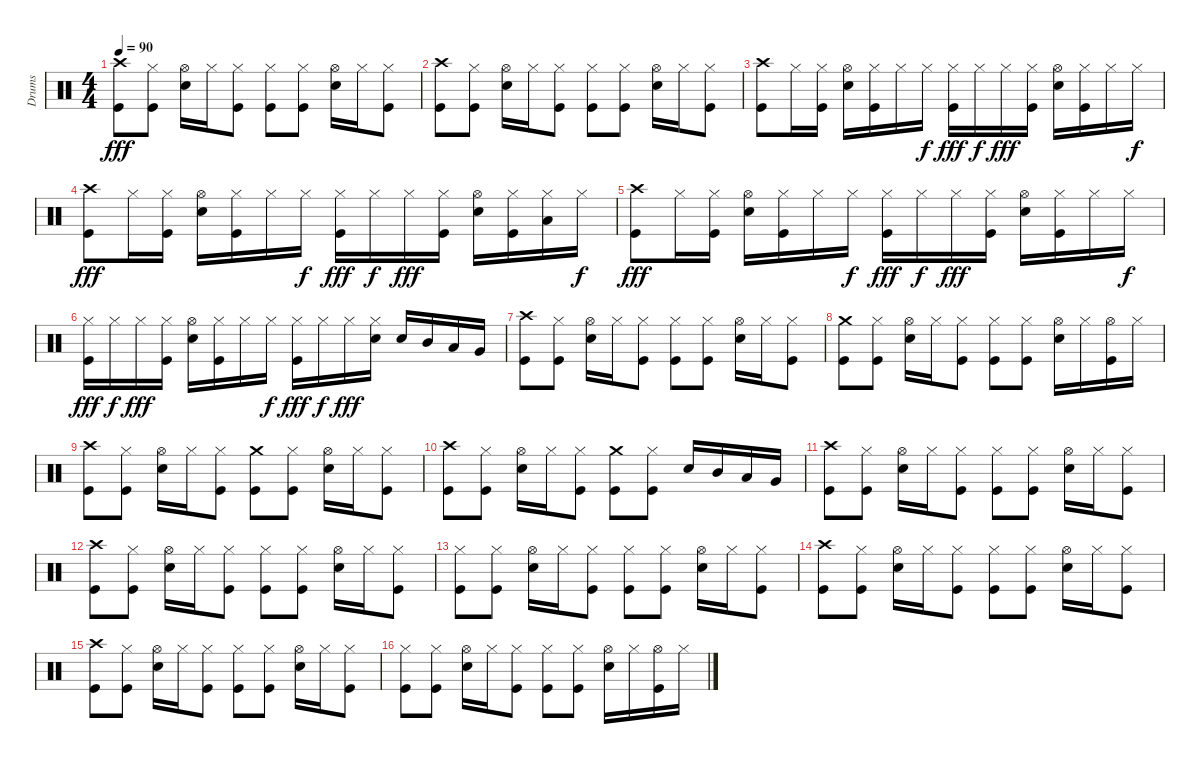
\track ("Drums" "Drums") {instrument percussion}
\staff {score}
\articulation defaults
\ts (4 4)
\tempo 90
\clef neutral
\ks c
("Crash high (hit)" "Kick (hit)").8{dy fff} ("Hi-Hat (closed)" "Kick (hit)").8 ("Hi-Hat (open)" "Snare (hit) 2").16 "Hi-Hat (closed)".16 ("Hi-Hat (closed)" "Kick (hit)").8 ("Hi-Hat (closed)" "Kick (hit)").8 ("Hi-Hat (closed)" "Kick (hit)").8 ("Hi-Hat (open)" "Snare (hit) 2").16 "Hi-Hat (closed)".16 ("Hi-Hat (closed)" "Kick (hit)").8 |
("Crash high (hit)" "Kick (hit)").8 ("Hi-Hat (closed)" "Kick (hit)").8 ("Hi-Hat (open)" "Snare (hit) 2").16 "Hi-Hat (closed)".16 ("Hi-Hat (closed)" "Kick (hit)").8 ("Hi-Hat (closed)" "Kick (hit)").8 ("Hi-Hat (closed)" "Kick (hit)").8 ("Hi-Hat (open)" "Snare (hit) 2").16 "Hi-Hat (closed)".16 ("Hi-Hat (closed)" "Kick (hit)").8 |
("Crash high (hit)" "Kick (hit)").8 "Hi-Hat (closed)".16 ("Hi-Hat (closed)" "Kick (hit)").16 ("Hi-Hat (open)" "Snare (hit) 2").16 ("Hi-Hat (closed)" "Kick (hit)").16 "Hi-Hat (closed)".16 "Hi-Hat (closed)".16{dy f} ("Hi-Hat (closed)" "Kick (hit)").16{dy fff} "Hi-Hat (closed)".16{dy f} "Hi-Hat (closed)".16{dy fff} ("Hi-Hat (closed)" "Kick (hit)").16 ("Hi-Hat (open)" "Snare (hit) 2").16 ("Hi-Hat (closed)" "Kick (hit)").16 "Hi-Hat (closed)".16 "Hi-Hat (closed)".16{dy f} |
("Crash high (hit)" "Kick (hit)").8{dy fff} "Hi-Hat (closed)".16 ("Hi-Hat (closed)" "Kick (hit)").16 ("Hi-Hat (open)" "Snare (hit) 2").16 ("Hi-Hat (closed)" "Kick (hit)").16 "Hi-Hat (closed)".16 "Hi-Hat (closed)".16{dy f} ("Hi-Hat (closed)" "Kick (hit)").16{dy fff} "Hi-Hat (closed)".16{dy f} "Hi-Hat (closed)".16{dy fff} ("Hi-Hat (closed)" "Kick (hit)").16 ("Hi-Hat (open)" "Snare (hit) 2").16 ("Hi-Hat (closed)" "Kick (hit)").16 ("Hi-Hat (closed)" "Low Tom (hit)").16 "Hi-Hat (closed)".16{dy f} |
("Crash high (hit)" "Kick (hit)").8{dy fff} "Hi-Hat (closed)".16 ("Hi-Hat (closed)" "Kick (hit)").16 ("Hi-Hat (open)" "Snare (hit) 2").16 ("Hi-Hat (closed)" "Kick (hit)").16 "Hi-Hat (closed)".16 "Hi-Hat (closed)".16{dy f} ("Hi-Hat (closed)" "Kick (hit)").16{dy fff} "Hi-Hat (closed)".16{dy f} "Hi-Hat (closed)".16{dy fff} ("Hi-Hat (closed)" "Kick (hit)").16 ("Hi-Hat (open)" "Snare (hit) 2").16 ("Hi-Hat (closed)" "Kick (hit)").16 "Hi-Hat (closed)".16 "Hi-Hat (closed)".16{dy f} |
("Hi-Hat (closed)" "Kick (hit)").16{dy fff} "Hi-Hat (closed)".16{dy f} "Hi-Hat (closed)".16{dy fff} ("Hi-Hat (closed)" "Kick (hit)").16 ("Hi-Hat (open)" "Snare (hit) 2").16 ("Hi-Hat (closed)" "Kick (hit)").16 "Hi-Hat (closed)".16 "Hi-Hat (closed)".16{dy f} ("Hi-Hat (closed)" "Kick (hit)").16{dy fff} "Hi-Hat (closed)".16{dy f} "Hi-Hat (closed)".16{dy fff} ("Hi-Hat (closed)" "Snare (hit) 2").16 "Snare (hit) 2".16 "Mid Tom (hit)".16 "Low Tom (hit)".16 "Very Low Tom (hit)".16 |
("Crash high (hit)" "Kick (hit)").8 ("Hi-Hat (closed)" "Kick (hit)").8 ("Hi-Hat (open)" "Snare (hit) 2").16 "Hi-Hat (closed)".16 ("Hi-Hat (closed)" "Kick (hit)").8 ("Hi-Hat (closed)" "Kick (hit)").8 ("Hi-Hat (closed)" "Kick (hit)").8 ("Hi-Hat (open)" "Snare (hit) 2").16 "Hi-Hat (closed)".16 ("Hi-Hat (closed)" "Kick (hit)").8 |
("Crash medium (hit)" "Kick (hit)").8 ("Hi-Hat (closed)" "Kick (hit)").8 ("Hi-Hat (open)" "Snare (hit) 2").16 "Hi-Hat (closed)".16 ("Hi-Hat (closed)" "Kick (hit)").8 ("Hi-Hat (closed)" "Kick (hit)").8 ("Hi-Hat (closed)" "Kick (hit)").8 ("Hi-Hat (open)" "Snare (hit) 2").16 "Hi-Hat (closed)".16 ("Hi-Hat (open)" "Kick (hit)").16 "Hi-Hat (closed)".16 |
("Crash high (hit)" "Kick (hit)").8 ("Hi-Hat (closed)" "Kick (hit)").8 ("Hi-Hat (open)" "Snare (hit) 2").16 "Hi-Hat (closed)".16 ("Hi-Hat (closed)" "Kick (hit)").8 ("Crash medium (hit)" "Kick (hit)").8 ("Hi-Hat (closed)" "Kick (hit)").8 ("Hi-Hat (open)" "Snare (hit) 2").16 "Hi-Hat (closed)".16 ("Hi-Hat (closed)" "Kick (hit)").8 |
("Crash high (hit)" "Kick (hit)").8 ("Hi-Hat (closed)" "Kick (hit)").8 ("Hi-Hat (open)" "Snare (hit) 2").16 "Hi-Hat (closed)".16 ("Hi-Hat (closed)" "Kick (hit)").8 ("Crash medium (hit)" "Kick (hit)").8 ("Hi-Hat (closed)" "Kick (hit)").8 "Snare (hit) 2".16 "Mid Tom (hit)".16 "Low Tom (hit)".16 "Very Low Tom (hit)".16 |
("Crash high (hit)" "Kick (hit)").8 ("Hi-Hat (closed)" "Kick (hit)").8 ("Hi-Hat (open)" "Snare (hit) 2").16 "Hi-Hat (closed)".16 ("Hi-Hat (closed)" "Kick (hit)").8 ("Hi-Hat (closed)" "Kick (hit)").8 ("Hi-Hat (closed)" "Kick (hit)").8 ("Hi-Hat (open)" "Snare (hit) 2").16 "Hi-Hat (closed)".16 ("Hi-Hat (closed)" "Kick (hit)").8 |
("Crash high (hit)" "Kick (hit)").8 ("Hi-Hat (closed)" "Kick (hit)").8 ("Hi-Hat (open)" "Snare (hit) 2").16 "Hi-Hat (closed)".16 ("Hi-Hat (closed)" "Kick (hit)").8 ("Hi-Hat (closed)" "Kick (hit)").8 ("Hi-Hat (closed)" "Kick (hit)").8 ("Hi-Hat (open)" "Snare (hit) 2").16 "Hi-Hat (closed)".16 ("Hi-Hat (closed)" "Kick (hit)").8 |
("Hi-Hat (closed)" "Kick (hit)").8 ("Hi-Hat (closed)" "Kick (hit)").8 ("Hi-Hat (open)" "Snare (hit) 2").16 "Hi-Hat (closed)".16 ("Hi-Hat (closed)" "Kick (hit)").8 ("Hi-Hat (closed)" "Kick (hit)").8 ("Hi-Hat (closed)" "Kick (hit)").8 ("Hi-Hat (open)" "Snare (hit) 2").16 "Hi-Hat (closed)".16 ("Hi-Hat (closed)" "Kick (hit)").8 |
("Crash high (hit)" "Kick (hit)").8 ("Hi-Hat (closed)" "Kick (hit)").8 ("Hi-Hat (open)" "Snare (hit) 2").16 "Hi-Hat (closed)".16 ("Hi-Hat (closed)" "Kick (hit)").8 ("Hi-Hat (closed)" "Kick (hit)").8 ("Hi-Hat (closed)" "Kick (hit)").8 ("Hi-Hat (open)" "Snare (hit) 2").16 "Hi-Hat (closed)".16 ("Hi-Hat (closed)" "Kick (hit)").8 |
("Crash high (hit)" "Kick (hit)").8 ("Hi-Hat (closed)" "Kick (hit)").8 ("Hi-Hat (open)" "Snare (hit) 2").16 "Hi-Hat (closed)".16 ("Hi-Hat (closed)" "Kick (hit)").8 ("Hi-Hat (closed)" "Kick (hit)").8 ("Hi-Hat (closed)" "Kick (hit)").8 ("Hi-Hat (open)" "Snare (hit) 2").16 "Hi-Hat (closed)".16 ("Hi-Hat (closed)" "Kick (hit)").8 |
("Hi-Hat (closed)" "Kick (hit)").8 ("Hi-Hat (closed)" "Kick (hit)").8 ("Hi-Hat (open)" "Snare (hit) 2").16 "Hi-Hat (closed)".16 ("Hi-Hat (closed)" "Kick (hit)").8 ("Hi-Hat (closed)" "Kick (hit)").8 ("Hi-Hat (closed)" "Kick (hit)").8 ("Hi-Hat (open)" "Snare (hit) 2").16 "Hi-Hat (closed)".16 ("Hi-Hat (open)" "Kick (hit)").16 "Hi-Hat (closed)".16
